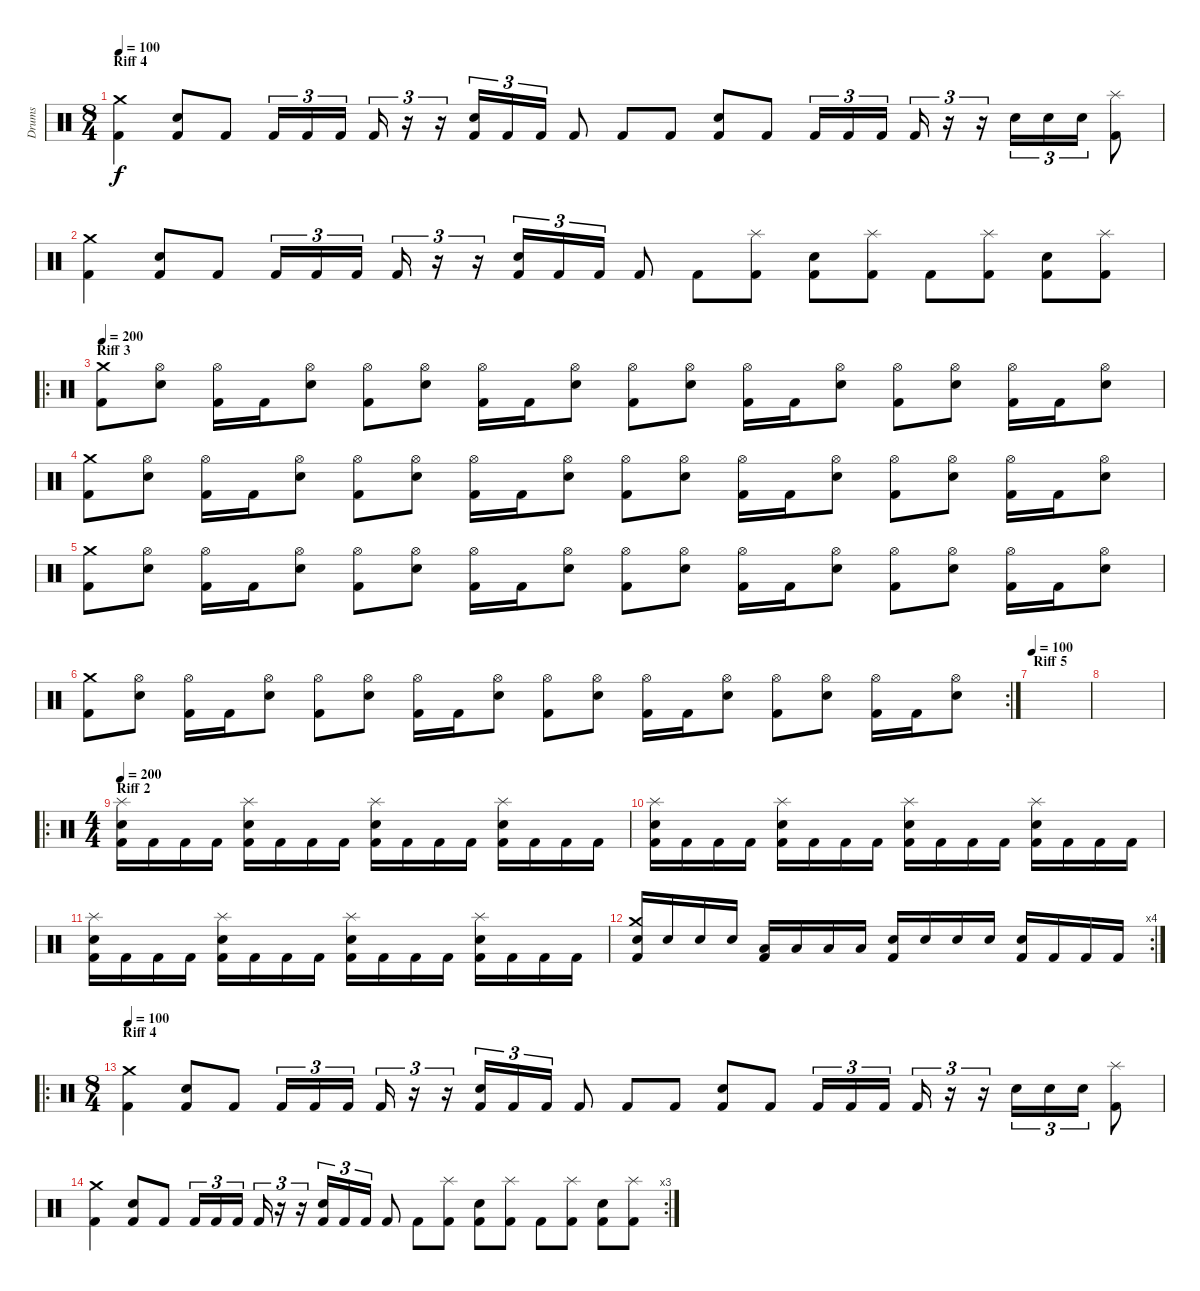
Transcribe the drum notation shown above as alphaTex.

\track ("Drums" "Drums") {instrument percussion}
\staff {score}
\articulation defaults
\ts (8 4)
\section ("" "Riff 4")
\tempo 100
\clef neutral
\ks c
("Kick (hit) 2" "Crash medium (hit)").4{dy f} ("Kick (hit) 2" "Snare (hit) 2").8 "Kick (hit) 2".8 "Kick (hit) 2".16{tu (3 2)} "Kick (hit) 2".16{tu (3 2)} "Kick (hit) 2".16{tu (3 2)} "Kick (hit) 2".16{tu (3 2)} r.16{tu (3 2)} r.16{tu (3 2)} ("Kick (hit) 2" "Snare (hit) 2").16{tu (3 2)} "Kick (hit) 2".16{tu (3 2)} "Kick (hit) 2".16{tu (3 2)} "Kick (hit) 2".8 "Kick (hit) 2".8 "Kick (hit) 2".8 ("Kick (hit) 2" "Snare (hit) 2").8 "Kick (hit) 2".8 "Kick (hit) 2".16{tu (3 2)} "Kick (hit) 2".16{tu (3 2)} "Kick (hit) 2".16{tu (3 2)} "Kick (hit) 2".16{tu (3 2)} r.16{tu (3 2)} r.16{tu (3 2)} "Snare (hit) 2".16{tu (3 2)} "Snare (hit) 2".16{tu (3 2)} "Snare (hit) 2".16{tu (3 2)} ("Kick (hit) 2" "Splash (hit)").8 |
("Kick (hit) 2" "Crash medium (hit)").4 ("Kick (hit) 2" "Snare (hit) 2").8 "Kick (hit) 2".8 "Kick (hit) 2".16{tu (3 2)} "Kick (hit) 2".16{tu (3 2)} "Kick (hit) 2".16{tu (3 2)} "Kick (hit) 2".16{tu (3 2)} r.16{tu (3 2)} r.16{tu (3 2)} ("Kick (hit) 2" "Snare (hit) 2").16{tu (3 2)} "Kick (hit) 2".16{tu (3 2)} "Kick (hit) 2".16{tu (3 2)} "Kick (hit) 2".8 "Kick (hit) 2".8 ("Kick (hit) 2" "Splash (hit)").8 ("Kick (hit) 2" "Snare (hit) 2").8 ("Kick (hit) 2" "Splash (hit)").8 "Kick (hit) 2".8 ("Kick (hit) 2" "Splash (hit)").8 ("Kick (hit) 2" "Snare (hit) 2").8 ("Kick (hit) 2" "Splash (hit)").8 |
\ro
\section ("" "Riff 3")
\tempo 200
("Crash medium (hit)" "Kick (hit) 2").8 ("Hi-Hat (open)" "Snare (hit) 2").8 ("Hi-Hat (open)" "Kick (hit) 2").16 "Kick (hit) 2".16 ("Hi-Hat (open)" "Snare (hit) 2").8 ("Hi-Hat (open)" "Kick (hit) 2").8 ("Hi-Hat (open)" "Snare (hit) 2").8 ("Hi-Hat (open)" "Kick (hit) 2").16 "Kick (hit) 2".16 ("Hi-Hat (open)" "Snare (hit) 2").8 ("Hi-Hat (open)" "Kick (hit) 2").8 ("Hi-Hat (open)" "Snare (hit) 2").8 ("Hi-Hat (open)" "Kick (hit) 2").16 "Kick (hit) 2".16 ("Hi-Hat (open)" "Snare (hit) 2").8 ("Hi-Hat (open)" "Kick (hit) 2").8 ("Hi-Hat (open)" "Snare (hit) 2").8 ("Hi-Hat (open)" "Kick (hit) 2").16 "Kick (hit) 2".16 ("Hi-Hat (open)" "Snare (hit) 2").8 |
("Crash medium (hit)" "Kick (hit) 2").8 ("Hi-Hat (open)" "Snare (hit) 2").8 ("Hi-Hat (open)" "Kick (hit) 2").16 "Kick (hit) 2".16 ("Hi-Hat (open)" "Snare (hit) 2").8 ("Hi-Hat (open)" "Kick (hit) 2").8 ("Hi-Hat (open)" "Snare (hit) 2").8 ("Hi-Hat (open)" "Kick (hit) 2").16 "Kick (hit) 2".16 ("Hi-Hat (open)" "Snare (hit) 2").8 ("Hi-Hat (open)" "Kick (hit) 2").8 ("Hi-Hat (open)" "Snare (hit) 2").8 ("Hi-Hat (open)" "Kick (hit) 2").16 "Kick (hit) 2".16 ("Hi-Hat (open)" "Snare (hit) 2").8 ("Hi-Hat (open)" "Kick (hit) 2").8 ("Hi-Hat (open)" "Snare (hit) 2").8 ("Hi-Hat (open)" "Kick (hit) 2").16 "Kick (hit) 2".16 ("Hi-Hat (open)" "Snare (hit) 2").8 |
("Crash medium (hit)" "Kick (hit) 2").8 ("Hi-Hat (open)" "Snare (hit) 2").8 ("Hi-Hat (open)" "Kick (hit) 2").16 "Kick (hit) 2".16 ("Hi-Hat (open)" "Snare (hit) 2").8 ("Hi-Hat (open)" "Kick (hit) 2").8 ("Hi-Hat (open)" "Snare (hit) 2").8 ("Hi-Hat (open)" "Kick (hit) 2").16 "Kick (hit) 2".16 ("Hi-Hat (open)" "Snare (hit) 2").8 ("Hi-Hat (open)" "Kick (hit) 2").8 ("Hi-Hat (open)" "Snare (hit) 2").8 ("Hi-Hat (open)" "Kick (hit) 2").16 "Kick (hit) 2".16 ("Hi-Hat (open)" "Snare (hit) 2").8 ("Hi-Hat (open)" "Kick (hit) 2").8 ("Hi-Hat (open)" "Snare (hit) 2").8 ("Hi-Hat (open)" "Kick (hit) 2").16 "Kick (hit) 2".16 ("Hi-Hat (open)" "Snare (hit) 2").8 |
\rc 2
("Crash medium (hit)" "Kick (hit) 2").8 ("Hi-Hat (open)" "Snare (hit) 2").8 ("Hi-Hat (open)" "Kick (hit) 2").16 "Kick (hit) 2".16 ("Hi-Hat (open)" "Snare (hit) 2").8 ("Hi-Hat (open)" "Kick (hit) 2").8 ("Hi-Hat (open)" "Snare (hit) 2").8 ("Hi-Hat (open)" "Kick (hit) 2").16 "Kick (hit) 2".16 ("Hi-Hat (open)" "Snare (hit) 2").8 ("Hi-Hat (open)" "Kick (hit) 2").8 ("Hi-Hat (open)" "Snare (hit) 2").8 ("Hi-Hat (open)" "Kick (hit) 2").16 "Kick (hit) 2".16 ("Hi-Hat (open)" "Snare (hit) 2").8 ("Hi-Hat (open)" "Kick (hit) 2").8 ("Hi-Hat (open)" "Snare (hit) 2").8 ("Hi-Hat (open)" "Kick (hit) 2").16 "Kick (hit) 2".16 ("Hi-Hat (open)" "Snare (hit) 2").8 |
\section ("" "Riff 5")
\tempo 100
|
|
\ro
\ts (4 4)
\section ("" "Riff 2")
\tempo 200
("Kick (hit) 2" "Snare (hit) 2" "Splash (hit)").16 "Kick (hit) 2".16 "Kick (hit) 2".16 "Kick (hit) 2".16 ("Kick (hit) 2" "Snare (hit) 2" "Splash (hit)").16 "Kick (hit) 2".16 "Kick (hit) 2".16 "Kick (hit) 2".16 ("Kick (hit) 2" "Snare (hit) 2" "Splash (hit)").16 "Kick (hit) 2".16 "Kick (hit) 2".16 "Kick (hit) 2".16 ("Kick (hit) 2" "Snare (hit) 2" "Splash (hit)").16 "Kick (hit) 2".16 "Kick (hit) 2".16 "Kick (hit) 2".16 |
("Kick (hit) 2" "Snare (hit) 2" "Splash (hit)").16 "Kick (hit) 2".16 "Kick (hit) 2".16 "Kick (hit) 2".16 ("Kick (hit) 2" "Snare (hit) 2" "Splash (hit)").16 "Kick (hit) 2".16 "Kick (hit) 2".16 "Kick (hit) 2".16 ("Kick (hit) 2" "Snare (hit) 2" "Splash (hit)").16 "Kick (hit) 2".16 "Kick (hit) 2".16 "Kick (hit) 2".16 ("Kick (hit) 2" "Snare (hit) 2" "Splash (hit)").16 "Kick (hit) 2".16 "Kick (hit) 2".16 "Kick (hit) 2".16 |
("Kick (hit) 2" "Snare (hit) 2" "Splash (hit)").16 "Kick (hit) 2".16 "Kick (hit) 2".16 "Kick (hit) 2".16 ("Kick (hit) 2" "Snare (hit) 2" "Splash (hit)").16 "Kick (hit) 2".16 "Kick (hit) 2".16 "Kick (hit) 2".16 ("Kick (hit) 2" "Snare (hit) 2" "Splash (hit)").16 "Kick (hit) 2".16 "Kick (hit) 2".16 "Kick (hit) 2".16 ("Kick (hit) 2" "Snare (hit) 2" "Splash (hit)").16 "Kick (hit) 2".16 "Kick (hit) 2".16 "Kick (hit) 2".16 |
\rc 4
("Kick (hit) 2" "Snare (hit) 2" "Crash medium (hit)").16 "Snare (hit) 2".16 "Snare (hit) 2".16 "Snare (hit) 2".16 ("Kick (hit) 2" "Low Tom (hit)").16 "Low Tom (hit)".16 "Low Tom (hit)".16 "Low Tom (hit)".16 ("Kick (hit) 2" "Snare (hit) 2").16 "Snare (hit) 2".16 "Snare (hit) 2".16 "Snare (hit) 2".16 ("Kick (hit) 2" "Snare (hit) 2").16 "Kick (hit) 2".16 "Kick (hit) 2".16 "Kick (hit) 2".16 |
\ro
\ts (8 4)
\section ("" "Riff 4")
\tempo 100
("Kick (hit) 2" "Crash medium (hit)").4 ("Kick (hit) 2" "Snare (hit) 2").8 "Kick (hit) 2".8 "Kick (hit) 2".16{tu (3 2)} "Kick (hit) 2".16{tu (3 2)} "Kick (hit) 2".16{tu (3 2)} "Kick (hit) 2".16{tu (3 2)} r.16{tu (3 2)} r.16{tu (3 2)} ("Kick (hit) 2" "Snare (hit) 2").16{tu (3 2)} "Kick (hit) 2".16{tu (3 2)} "Kick (hit) 2".16{tu (3 2)} "Kick (hit) 2".8 "Kick (hit) 2".8 "Kick (hit) 2".8 ("Kick (hit) 2" "Snare (hit) 2").8 "Kick (hit) 2".8 "Kick (hit) 2".16{tu (3 2)} "Kick (hit) 2".16{tu (3 2)} "Kick (hit) 2".16{tu (3 2)} "Kick (hit) 2".16{tu (3 2)} r.16{tu (3 2)} r.16{tu (3 2)} "Snare (hit) 2".16{tu (3 2)} "Snare (hit) 2".16{tu (3 2)} "Snare (hit) 2".16{tu (3 2)} ("Kick (hit) 2" "Splash (hit)").8 |
\rc 3
("Kick (hit) 2" "Crash medium (hit)").4 ("Kick (hit) 2" "Snare (hit) 2").8 "Kick (hit) 2".8 "Kick (hit) 2".16{tu (3 2)} "Kick (hit) 2".16{tu (3 2)} "Kick (hit) 2".16{tu (3 2)} "Kick (hit) 2".16{tu (3 2)} r.16{tu (3 2)} r.16{tu (3 2)} ("Kick (hit) 2" "Snare (hit) 2").16{tu (3 2)} "Kick (hit) 2".16{tu (3 2)} "Kick (hit) 2".16{tu (3 2)} "Kick (hit) 2".8 "Kick (hit) 2".8 ("Kick (hit) 2" "Splash (hit)").8 ("Kick (hit) 2" "Snare (hit) 2").8 ("Kick (hit) 2" "Splash (hit)").8 "Kick (hit) 2".8 ("Kick (hit) 2" "Splash (hit)").8 ("Kick (hit) 2" "Snare (hit) 2").8 ("Kick (hit) 2" "Splash (hit)").8
